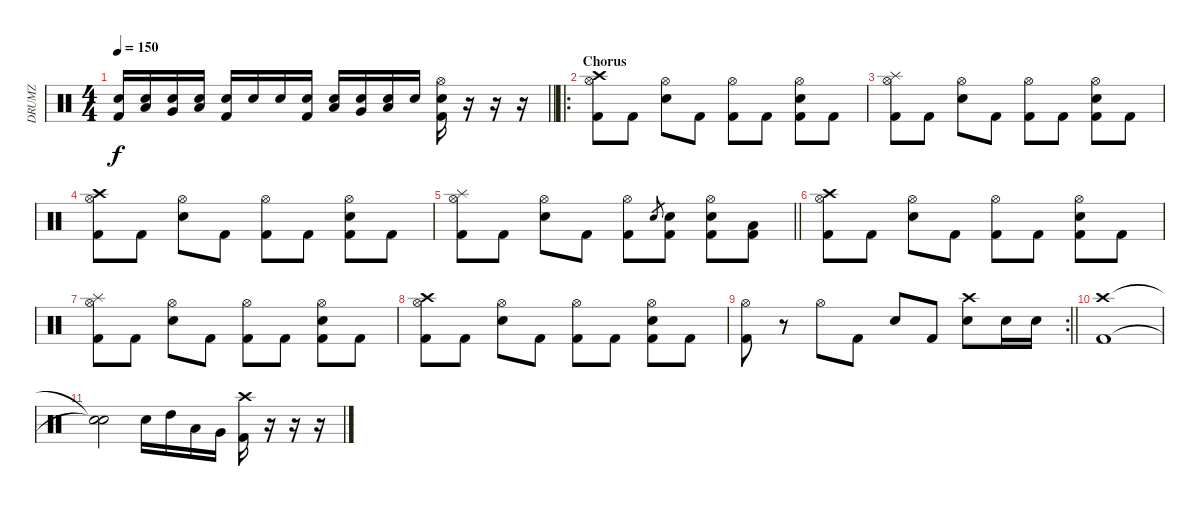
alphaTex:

\track ("DRUMZ" "DRUMZ") {instrument percussion}
\staff {score}
\articulation defaults
\ts (4 4)
\tempo 150
\clef neutral
\barLineRight lightlight
\ks c
("Electric Snare (hit)" "Kick (hit) 2").16{dy f} ("Low Tom (hit)" "Electric Snare (hit)").16 ("Very Low Tom (hit)" "Electric Snare (hit)").16 ("Low Floor Tom (hit)" "Electric Snare (hit)").16 ("Electric Snare (hit)" "Kick (hit) 2").16 "Electric Snare (hit)".16 "Electric Snare (hit)".16 ("Electric Snare (hit)" "Kick (hit) 2").16 ("Low Tom (hit)" "Electric Snare (hit)").16 ("Very Low Tom (hit)" "Electric Snare (hit)").16 ("Low Floor Tom (hit)" "Electric Snare (hit)").16 "Electric Snare (hit)".16 ("Hi-Hat (open)" "Electric Snare (hit)" "Kick (hit) 2").16 r.16 r.16 r.16 |
\ro
\section ("" "Chorus")
("Crash high (hit)" "Hi-Hat (open)" "Kick (hit) 2").8 "Kick (hit) 2".8 ("Hi-Hat (open)" "Electric Snare (hit)").8 "Kick (hit) 2".8 ("Hi-Hat (open)" "Kick (hit) 2").8 "Kick (hit) 2".8 ("Hi-Hat (open)" "Electric Snare (hit)" "Kick (hit) 2").8 "Kick (hit) 2".8 |
("Splash (hit)" "Hi-Hat (open)" "Kick (hit) 2").8 "Kick (hit) 2".8 ("Hi-Hat (open)" "Electric Snare (hit)").8 "Kick (hit) 2".8 ("Hi-Hat (open)" "Kick (hit) 2").8 "Kick (hit) 2".8 ("Hi-Hat (open)" "Electric Snare (hit)" "Kick (hit) 2").8 "Kick (hit) 2".8 |
("Crash high (hit)" "Hi-Hat (open)" "Kick (hit) 2").8 "Kick (hit) 2".8 ("Hi-Hat (open)" "Electric Snare (hit)").8 "Kick (hit) 2".8 ("Hi-Hat (open)" "Kick (hit) 2").8 "Kick (hit) 2".8 ("Hi-Hat (open)" "Electric Snare (hit)" "Kick (hit) 2").8 "Kick (hit) 2".8 |
\barLineRight lightlight
("Splash (hit)" "Hi-Hat (open)" "Kick (hit) 2").8 "Kick (hit) 2".8 ("Hi-Hat (open)" "Electric Snare (hit)").8 "Kick (hit) 2".8 ("Hi-Hat (open)" "Kick (hit) 2").8 "Electric Snare (hit)".8{gr} ("Electric Snare (hit)" "Kick (hit) 2").8 ("Hi-Hat (open)" "Electric Snare (hit)" "Kick (hit) 2").8 ("Low Floor Tom (hit)" "Kick (hit) 2").8 |
("Crash high (hit)" "Hi-Hat (open)" "Kick (hit) 2").8 "Kick (hit) 2".8 ("Hi-Hat (open)" "Electric Snare (hit)").8 "Kick (hit) 2".8 ("Hi-Hat (open)" "Kick (hit) 2").8 "Kick (hit) 2".8 ("Hi-Hat (open)" "Electric Snare (hit)" "Kick (hit) 2").8 "Kick (hit) 2".8 |
("Splash (hit)" "Hi-Hat (open)" "Kick (hit) 2").8 "Kick (hit) 2".8 ("Hi-Hat (open)" "Electric Snare (hit)").8 "Kick (hit) 2".8 ("Hi-Hat (open)" "Kick (hit) 2").8 "Kick (hit) 2".8 ("Hi-Hat (open)" "Electric Snare (hit)" "Kick (hit) 2").8 "Kick (hit) 2".8 |
("Crash high (hit)" "Hi-Hat (open)" "Kick (hit) 2").8 "Kick (hit) 2".8 ("Hi-Hat (open)" "Electric Snare (hit)").8 "Kick (hit) 2".8 ("Hi-Hat (open)" "Kick (hit) 2").8 "Kick (hit) 2".8 ("Hi-Hat (open)" "Electric Snare (hit)" "Kick (hit) 2").8 "Kick (hit) 2".8 |
\rc 2
\barLineRight lightlight
("Hi-Hat (open)" "Kick (hit) 2").8 r.8 "Hi-Hat (open)".8 "Kick (hit) 2".8 "Electric Snare (hit)".8 "Kick (hit) 2".8 ("Crash high (hit)" "Electric Snare (hit)").8 "Electric Snare (hit)".16 "Electric Snare (hit)".16 |
("Crash high (hit)" "Kick (hit) 2").1 |
("Snare (hit)"{t} "Snare (hit)"{t}).2 "Electric Snare (hit)".16 "High Tom (hit)".16 "Low Tom (hit)".16 "Very Low Tom (hit)".16 ("Crash high (hit)" "Kick (hit) 2").16 r.16 r.16 r.16
